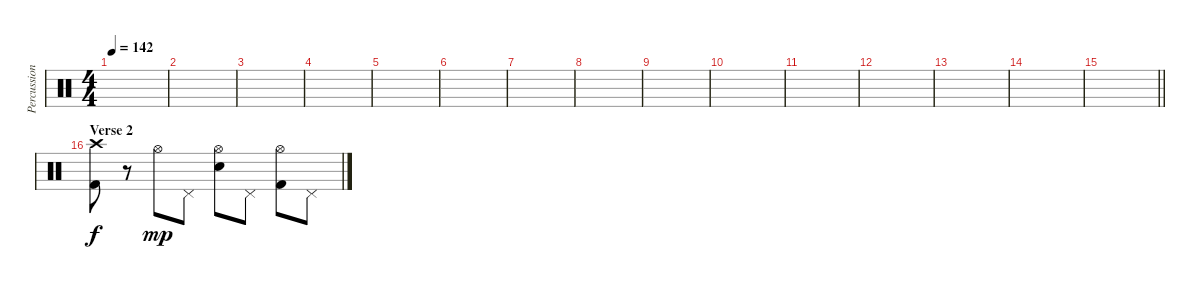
\track ("Percussion" "Percussion") {instrument percussion}
\staff {score}
\articulation defaults
\ts (4 4)
\tempo 142
\clef neutral
\ks c
|
|
|
|
|
|
|
|
|
|
|
|
|
|
\barLineRight lightlight
|
\section ("" "Verse 2")
("Kick (hit) 2" "Crash high (hit)").8 r.8 "Hi-Hat (open)".8{dy mp} "Pedal Hi-Hat (hit)".8 ("Electric Snare (hit)" "Hi-Hat (open)").8 "Pedal Hi-Hat (hit)".8 ("Kick (hit) 2" "Hi-Hat (open)").8 "Pedal Hi-Hat (hit)".8
